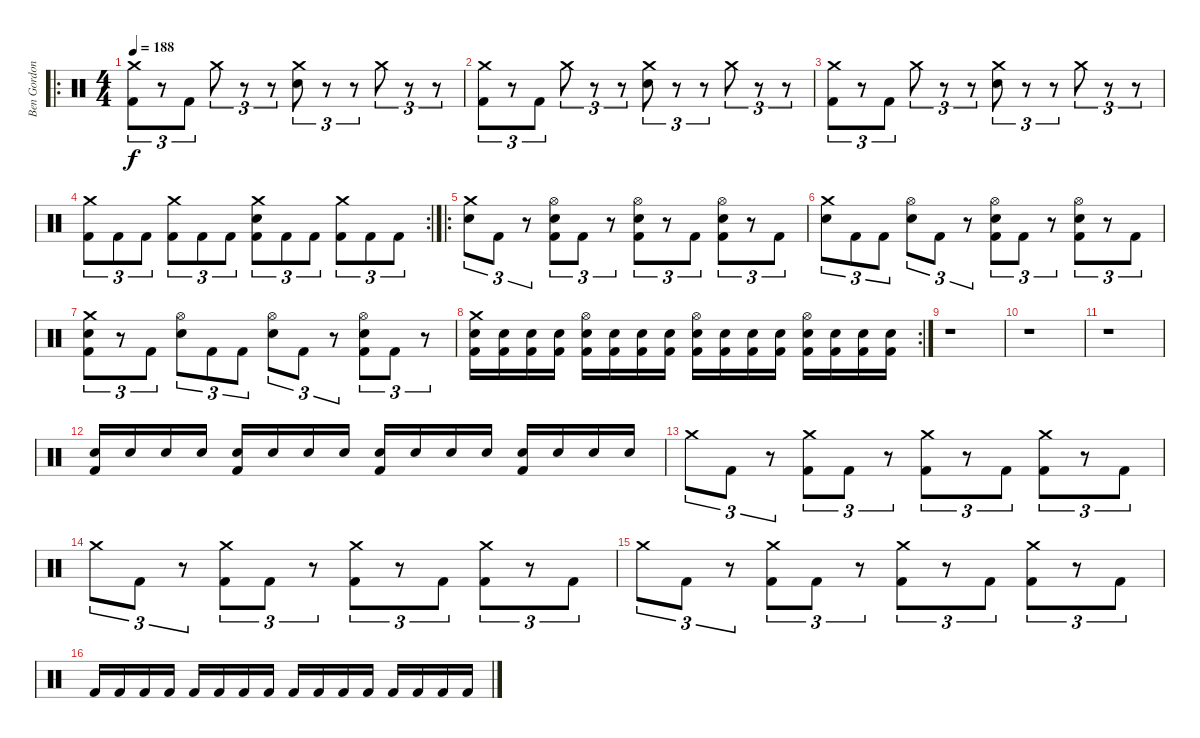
\track ("Ben Gordon" "Ben Gordon") {instrument percussion}
\staff {score}
\articulation defaults
\ro
\ts (4 4)
\tempo 188
\clef neutral
\ks c
("Crash medium (hit)" "Kick (hit) 2").8{tu (3 2) dy f} r.8{tu (3 2)} "Kick (hit) 2".8{tu (3 2)} "Crash medium (hit)".8{tu (3 2)} r.8{tu (3 2)} r.8{tu (3 2)} ("Electric Snare (hit)" "Crash medium (hit)").8{tu (3 2)} r.8{tu (3 2)} r.8{tu (3 2)} "Crash medium (hit)".8{tu (3 2)} r.8{tu (3 2)} r.8{tu (3 2)} |
("Crash medium (hit)" "Kick (hit) 2").8{tu (3 2)} r.8{tu (3 2)} "Kick (hit) 2".8{tu (3 2)} "Crash medium (hit)".8{tu (3 2)} r.8{tu (3 2)} r.8{tu (3 2)} ("Electric Snare (hit)" "Crash medium (hit)").8{tu (3 2)} r.8{tu (3 2)} r.8{tu (3 2)} "Crash medium (hit)".8{tu (3 2)} r.8{tu (3 2)} r.8{tu (3 2)} |
("Crash medium (hit)" "Kick (hit) 2").8{tu (3 2)} r.8{tu (3 2)} "Kick (hit) 2".8{tu (3 2)} "Crash medium (hit)".8{tu (3 2)} r.8{tu (3 2)} r.8{tu (3 2)} ("Electric Snare (hit)" "Crash medium (hit)").8{tu (3 2)} r.8{tu (3 2)} r.8{tu (3 2)} "Crash medium (hit)".8{tu (3 2)} r.8{tu (3 2)} r.8{tu (3 2)} |
\rc 2
("Crash medium (hit)" "Kick (hit) 2").8{tu (3 2)} "Kick (hit) 2".8{tu (3 2)} "Kick (hit) 2".8{tu (3 2)} ("Crash medium (hit)" "Kick (hit) 2").8{tu (3 2)} "Kick (hit) 2".8{tu (3 2)} "Kick (hit) 2".8{tu (3 2)} ("Electric Snare (hit)" "Crash medium (hit)" "Kick (hit) 2").8{tu (3 2)} "Kick (hit) 2".8{tu (3 2)} "Kick (hit) 2".8{tu (3 2)} ("Crash medium (hit)" "Kick (hit) 2").8{tu (3 2)} "Kick (hit) 2".8{tu (3 2)} "Kick (hit) 2".8{tu (3 2)} |
\ro
("Electric Snare (hit)" "Crash medium (hit)").8{tu (3 2)} "Kick (hit) 2".8{tu (3 2)} r.8{tu (3 2)} ("Electric Snare (hit)" "Hi-Hat (open)" "Kick (hit) 2").8{tu (3 2)} "Kick (hit) 2".8{tu (3 2)} r.8{tu (3 2)} ("Electric Snare (hit)" "Hi-Hat (open)" "Kick (hit) 2").8{tu (3 2)} r.8{tu (3 2)} "Kick (hit) 2".8{tu (3 2)} ("Electric Snare (hit)" "Hi-Hat (open)" "Kick (hit) 2").8{tu (3 2)} r.8{tu (3 2)} "Kick (hit) 2".8{tu (3 2)} |
("Electric Snare (hit)" "Crash medium (hit)").8{tu (3 2)} "Kick (hit) 2".8{tu (3 2)} "Kick (hit) 2".8{tu (3 2)} ("Electric Snare (hit)" "Hi-Hat (open)").8{tu (3 2)} "Kick (hit) 2".8{tu (3 2)} r.8{tu (3 2)} ("Electric Snare (hit)" "Hi-Hat (open)" "Kick (hit) 2").8{tu (3 2)} "Kick (hit) 2".8{tu (3 2)} r.8{tu (3 2)} ("Electric Snare (hit)" "Hi-Hat (open)" "Kick (hit) 2").8{tu (3 2)} r.8{tu (3 2)} "Kick (hit) 2".8{tu (3 2)} |
("Electric Snare (hit)" "Crash medium (hit)" "Kick (hit) 2").8{tu (3 2)} r.8{tu (3 2)} "Kick (hit) 2".8{tu (3 2)} ("Electric Snare (hit)" "Hi-Hat (open)").8{tu (3 2)} "Kick (hit) 2".8{tu (3 2)} "Kick (hit) 2".8{tu (3 2)} ("Electric Snare (hit)" "Hi-Hat (open)").8{tu (3 2)} "Kick (hit) 2".8{tu (3 2)} r.8{tu (3 2)} ("Electric Snare (hit)" "Hi-Hat (open)" "Kick (hit) 2").8{tu (3 2)} "Kick (hit) 2".8{tu (3 2)} r.8{tu (3 2)} |
\rc 2
("Electric Snare (hit)" "Crash medium (hit)" "Kick (hit) 2").16 ("Electric Snare (hit)" "Kick (hit) 2").16 ("Electric Snare (hit)" "Kick (hit) 2").16 ("Electric Snare (hit)" "Kick (hit) 2").16 ("Electric Snare (hit)" "Hi-Hat (open)" "Kick (hit) 2").16 ("Electric Snare (hit)" "Kick (hit) 2").16 ("Electric Snare (hit)" "Kick (hit) 2").16 ("Electric Snare (hit)" "Kick (hit) 2").16 ("Electric Snare (hit)" "Hi-Hat (open)" "Kick (hit) 2").16 ("Electric Snare (hit)" "Kick (hit) 2").16 ("Electric Snare (hit)" "Kick (hit) 2").16 ("Electric Snare (hit)" "Kick (hit) 2").16 ("Electric Snare (hit)" "Hi-Hat (open)" "Kick (hit) 2").16 ("Electric Snare (hit)" "Kick (hit) 2").16 ("Electric Snare (hit)" "Kick (hit) 2").16 ("Electric Snare (hit)" "Kick (hit) 2").16 |
r.1 |
r.1 |
r.1 |
("Electric Snare (hit)" "Kick (hit) 2").16 "Electric Snare (hit)".16 "Electric Snare (hit)".16 "Electric Snare (hit)".16 ("Electric Snare (hit)" "Kick (hit) 2").16 "Electric Snare (hit)".16 "Electric Snare (hit)".16 "Electric Snare (hit)".16 ("Electric Snare (hit)" "Kick (hit) 2").16 "Electric Snare (hit)".16 "Electric Snare (hit)".16 "Electric Snare (hit)".16 ("Electric Snare (hit)" "Kick (hit) 2").16 "Electric Snare (hit)".16 "Electric Snare (hit)".16 "Electric Snare (hit)".16 |
"Crash medium (hit)".8{tu (3 2)} "Kick (hit) 2".8{tu (3 2)} r.8{tu (3 2)} ("Crash medium (hit)" "Kick (hit) 2").8{tu (3 2)} "Kick (hit) 2".8{tu (3 2)} r.8{tu (3 2)} ("Crash medium (hit)" "Kick (hit) 2").8{tu (3 2)} r.8{tu (3 2)} "Kick (hit) 2".8{tu (3 2)} ("Crash medium (hit)" "Kick (hit) 2").8{tu (3 2)} r.8{tu (3 2)} "Kick (hit) 2".8{tu (3 2)} |
"Crash medium (hit)".8{tu (3 2)} "Kick (hit) 2".8{tu (3 2)} r.8{tu (3 2)} ("Crash medium (hit)" "Kick (hit) 2").8{tu (3 2)} "Kick (hit) 2".8{tu (3 2)} r.8{tu (3 2)} ("Crash medium (hit)" "Kick (hit) 2").8{tu (3 2)} r.8{tu (3 2)} "Kick (hit) 2".8{tu (3 2)} ("Crash medium (hit)" "Kick (hit) 2").8{tu (3 2)} r.8{tu (3 2)} "Kick (hit) 2".8{tu (3 2)} |
"Crash medium (hit)".8{tu (3 2)} "Kick (hit) 2".8{tu (3 2)} r.8{tu (3 2)} ("Crash medium (hit)" "Kick (hit) 2").8{tu (3 2)} "Kick (hit) 2".8{tu (3 2)} r.8{tu (3 2)} ("Crash medium (hit)" "Kick (hit) 2").8{tu (3 2)} r.8{tu (3 2)} "Kick (hit) 2".8{tu (3 2)} ("Crash medium (hit)" "Kick (hit) 2").8{tu (3 2)} r.8{tu (3 2)} "Kick (hit) 2".8{tu (3 2)} |
"Kick (hit) 2".16 "Kick (hit) 2".16 "Kick (hit) 2".16 "Kick (hit) 2".16 "Kick (hit) 2".16 "Kick (hit) 2".16 "Kick (hit) 2".16 "Kick (hit) 2".16 "Kick (hit) 2".16 "Kick (hit) 2".16 "Kick (hit) 2".16 "Kick (hit) 2".16 "Kick (hit) 2".16 "Kick (hit) 2".16 "Kick (hit) 2".16 "Kick (hit) 2".16
